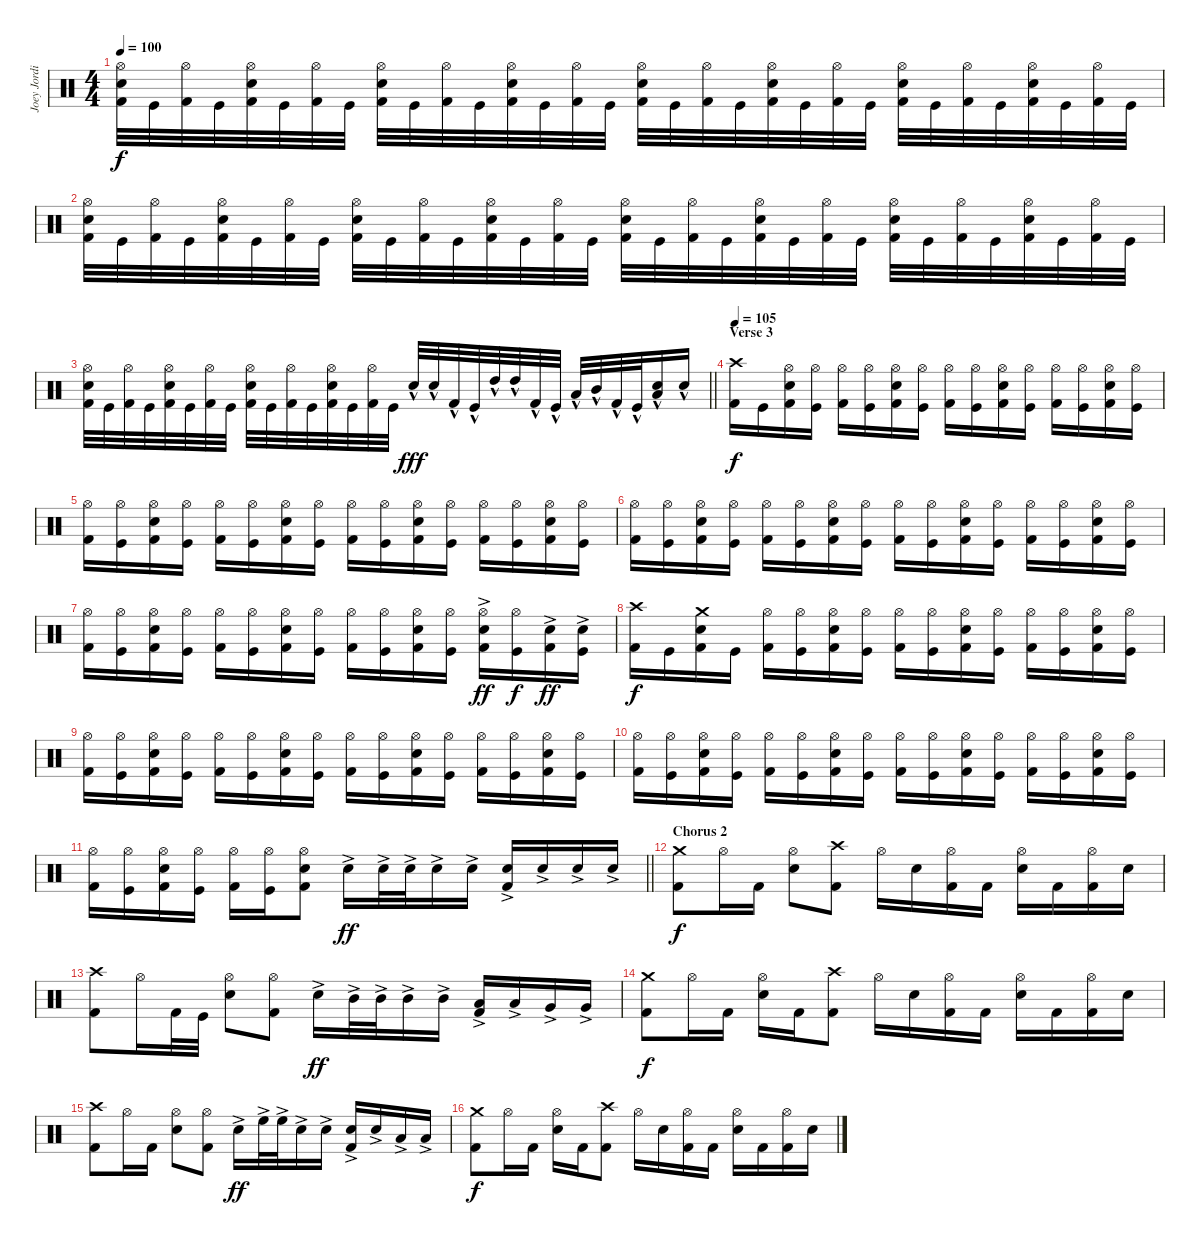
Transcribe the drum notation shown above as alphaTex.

\track ("Joey Jordinson (Drums)" "Joey Jordi") {instrument percussion}
\staff {score}
\articulation defaults
\ts (4 4)
\tempo 100
\clef neutral
\ks c
("Hi-Hat (open)" "Electric Snare (hit)" "Kick (hit) 2").32{dy f} "Kick (hit)".32 ("Hi-Hat (open)" "Kick (hit) 2").32 "Kick (hit)".32 ("Hi-Hat (open)" "Electric Snare (hit)" "Kick (hit) 2").32 "Kick (hit)".32 ("Hi-Hat (open)" "Kick (hit) 2").32 "Kick (hit)".32 ("Hi-Hat (open)" "Electric Snare (hit)" "Kick (hit) 2").32 "Kick (hit)".32 ("Hi-Hat (open)" "Kick (hit) 2").32 "Kick (hit)".32 ("Hi-Hat (open)" "Electric Snare (hit)" "Kick (hit) 2").32 "Kick (hit)".32 ("Hi-Hat (open)" "Kick (hit) 2").32 "Kick (hit)".32 ("Hi-Hat (open)" "Electric Snare (hit)" "Kick (hit) 2").32 "Kick (hit)".32 ("Hi-Hat (open)" "Kick (hit) 2").32 "Kick (hit)".32 ("Hi-Hat (open)" "Electric Snare (hit)" "Kick (hit) 2").32 "Kick (hit)".32 ("Hi-Hat (open)" "Kick (hit) 2").32 "Kick (hit)".32 ("Hi-Hat (open)" "Electric Snare (hit)" "Kick (hit) 2").32 "Kick (hit)".32 ("Hi-Hat (open)" "Kick (hit) 2").32 "Kick (hit)".32 ("Hi-Hat (open)" "Electric Snare (hit)" "Kick (hit) 2").32 "Kick (hit)".32 ("Hi-Hat (open)" "Kick (hit) 2").32 "Kick (hit)".32 |
("Hi-Hat (open)" "Electric Snare (hit)" "Kick (hit) 2").32 "Kick (hit)".32 ("Hi-Hat (open)" "Kick (hit) 2").32 "Kick (hit)".32 ("Hi-Hat (open)" "Electric Snare (hit)" "Kick (hit) 2").32 "Kick (hit)".32 ("Hi-Hat (open)" "Kick (hit) 2").32 "Kick (hit)".32 ("Hi-Hat (open)" "Electric Snare (hit)" "Kick (hit) 2").32 "Kick (hit)".32 ("Hi-Hat (open)" "Kick (hit) 2").32 "Kick (hit)".32 ("Hi-Hat (open)" "Electric Snare (hit)" "Kick (hit) 2").32 "Kick (hit)".32 ("Hi-Hat (open)" "Kick (hit) 2").32 "Kick (hit)".32 ("Hi-Hat (open)" "Electric Snare (hit)" "Kick (hit) 2").32 "Kick (hit)".32 ("Hi-Hat (open)" "Kick (hit) 2").32 "Kick (hit)".32 ("Hi-Hat (open)" "Electric Snare (hit)" "Kick (hit) 2").32 "Kick (hit)".32 ("Hi-Hat (open)" "Kick (hit) 2").32 "Kick (hit)".32 ("Hi-Hat (open)" "Electric Snare (hit)" "Kick (hit) 2").32 "Kick (hit)".32 ("Hi-Hat (open)" "Kick (hit) 2").32 "Kick (hit)".32 ("Hi-Hat (open)" "Electric Snare (hit)" "Kick (hit) 2").32 "Kick (hit)".32 ("Hi-Hat (open)" "Kick (hit) 2").32 "Kick (hit)".32 |
\barLineRight lightlight
("Hi-Hat (open)" "Electric Snare (hit)" "Kick (hit) 2").32 "Kick (hit)".32 ("Hi-Hat (open)" "Kick (hit) 2").32 "Kick (hit)".32 ("Hi-Hat (open)" "Electric Snare (hit)" "Kick (hit) 2").32 "Kick (hit)".32 ("Hi-Hat (open)" "Kick (hit) 2").32 "Kick (hit)".32 ("Hi-Hat (open)" "Electric Snare (hit)" "Kick (hit) 2").32 "Kick (hit)".32 ("Hi-Hat (open)" "Kick (hit) 2").32 "Kick (hit)".32 ("Hi-Hat (open)" "Electric Snare (hit)" "Kick (hit) 2").32 "Kick (hit)".32 ("Hi-Hat (open)" "Kick (hit) 2").32 "Kick (hit)".32 "Electric Snare (hit)"{hac}.32{dy fff} "Electric Snare (hit)"{hac}.32 "Kick (hit) 2"{hac}.32 "Kick (hit)"{hac}.32 "High Tom (hit)"{hac}.32 "High Tom (hit)"{hac}.32 "Kick (hit) 2"{hac}.32 "Kick (hit)"{hac}.32 "Low Tom (hit)"{hac}.32 "Mid Tom (hit)"{hac}.32 "Kick (hit) 2"{hac}.32 "Kick (hit)"{hac}.32 ("Low Tom (hit)"{hac} "Electric Snare (hit)"{hac}).16 "Electric Snare (hit)"{hac}.16 |
\section ("" "Verse 3")
\tempo 105
("Crash high (hit)" "Kick (hit) 2").16{dy f} "Kick (hit)".16 ("Hi-Hat (open)" "Electric Snare (hit)" "Kick (hit) 2").16 ("Hi-Hat (open)" "Kick (hit)").16 ("Hi-Hat (open)" "Kick (hit) 2").16 ("Hi-Hat (open)" "Kick (hit)").16 ("Hi-Hat (open)" "Electric Snare (hit)" "Kick (hit) 2").16 ("Hi-Hat (open)" "Kick (hit)").16 ("Hi-Hat (open)" "Kick (hit) 2").16 ("Hi-Hat (open)" "Kick (hit)").16 ("Hi-Hat (open)" "Electric Snare (hit)" "Kick (hit) 2").16 ("Hi-Hat (open)" "Kick (hit)").16 ("Hi-Hat (open)" "Kick (hit) 2").16 ("Hi-Hat (open)" "Kick (hit)").16 ("Hi-Hat (open)" "Electric Snare (hit)" "Kick (hit) 2").16 ("Hi-Hat (open)" "Kick (hit)").16 |
("Hi-Hat (open)" "Kick (hit) 2").16 ("Hi-Hat (open)" "Kick (hit)").16 ("Hi-Hat (open)" "Electric Snare (hit)" "Kick (hit) 2").16 ("Hi-Hat (open)" "Kick (hit)").16 ("Hi-Hat (open)" "Kick (hit) 2").16 ("Hi-Hat (open)" "Kick (hit)").16 ("Hi-Hat (open)" "Electric Snare (hit)" "Kick (hit) 2").16 ("Hi-Hat (open)" "Kick (hit)").16 ("Hi-Hat (open)" "Kick (hit) 2").16 ("Hi-Hat (open)" "Kick (hit)").16 ("Hi-Hat (open)" "Electric Snare (hit)" "Kick (hit) 2").16 ("Hi-Hat (open)" "Kick (hit)").16 ("Hi-Hat (open)" "Kick (hit) 2").16 ("Hi-Hat (open)" "Kick (hit)").16 ("Hi-Hat (open)" "Electric Snare (hit)" "Kick (hit) 2").16 ("Hi-Hat (open)" "Kick (hit)").16 |
("Hi-Hat (open)" "Kick (hit) 2").16 ("Hi-Hat (open)" "Kick (hit)").16 ("Hi-Hat (open)" "Electric Snare (hit)" "Kick (hit) 2").16 ("Hi-Hat (open)" "Kick (hit)").16 ("Hi-Hat (open)" "Kick (hit) 2").16 ("Hi-Hat (open)" "Kick (hit)").16 ("Hi-Hat (open)" "Electric Snare (hit)" "Kick (hit) 2").16 ("Hi-Hat (open)" "Kick (hit)").16 ("Hi-Hat (open)" "Kick (hit) 2").16 ("Hi-Hat (open)" "Kick (hit)").16 ("Hi-Hat (open)" "Electric Snare (hit)" "Kick (hit) 2").16 ("Hi-Hat (open)" "Kick (hit)").16 ("Hi-Hat (open)" "Kick (hit) 2").16 ("Hi-Hat (open)" "Kick (hit)").16 ("Hi-Hat (open)" "Electric Snare (hit)" "Kick (hit) 2").16 ("Hi-Hat (open)" "Kick (hit)").16 |
("Hi-Hat (open)" "Kick (hit) 2").16 ("Hi-Hat (open)" "Kick (hit)").16 ("Hi-Hat (open)" "Electric Snare (hit)" "Kick (hit) 2").16 ("Hi-Hat (open)" "Kick (hit)").16 ("Hi-Hat (open)" "Kick (hit) 2").16 ("Hi-Hat (open)" "Kick (hit)").16 ("Hi-Hat (open)" "Electric Snare (hit)" "Kick (hit) 2").16 ("Hi-Hat (open)" "Kick (hit)").16 ("Hi-Hat (open)" "Kick (hit) 2").16 ("Hi-Hat (open)" "Kick (hit)").16 ("Hi-Hat (open)" "Electric Snare (hit)" "Kick (hit) 2").16 ("Hi-Hat (open)" "Kick (hit)").16 ("Hi-Hat (open)" "Electric Snare (hit)"{ac} "Kick (hit) 2").16{dy ff} ("Hi-Hat (open)" "Kick (hit)").16{dy f} ("Electric Snare (hit)"{ac} "Kick (hit) 2").16{dy ff} ("Electric Snare (hit)"{ac} "Kick (hit)").16 |
("Crash high (hit)" "Kick (hit) 2").16{dy f} "Kick (hit)".16 ("Crash medium (hit)" "Electric Snare (hit)" "Kick (hit) 2").16 "Kick (hit)".16 ("Hi-Hat (open)" "Kick (hit) 2").16 ("Hi-Hat (open)" "Kick (hit)").16 ("Hi-Hat (open)" "Electric Snare (hit)" "Kick (hit) 2").16 ("Hi-Hat (open)" "Kick (hit)").16 ("Hi-Hat (open)" "Kick (hit) 2").16 ("Hi-Hat (open)" "Kick (hit)").16 ("Hi-Hat (open)" "Electric Snare (hit)" "Kick (hit) 2").16 ("Hi-Hat (open)" "Kick (hit)").16 ("Hi-Hat (open)" "Kick (hit) 2").16 ("Hi-Hat (open)" "Kick (hit)").16 ("Hi-Hat (open)" "Electric Snare (hit)" "Kick (hit) 2").16 ("Hi-Hat (open)" "Kick (hit)").16 |
("Hi-Hat (open)" "Kick (hit) 2").16 ("Hi-Hat (open)" "Kick (hit)").16 ("Hi-Hat (open)" "Electric Snare (hit)" "Kick (hit) 2").16 ("Hi-Hat (open)" "Kick (hit)").16 ("Hi-Hat (open)" "Kick (hit) 2").16 ("Hi-Hat (open)" "Kick (hit)").16 ("Hi-Hat (open)" "Electric Snare (hit)" "Kick (hit) 2").16 ("Hi-Hat (open)" "Kick (hit)").16 ("Hi-Hat (open)" "Kick (hit) 2").16 ("Hi-Hat (open)" "Kick (hit)").16 ("Hi-Hat (open)" "Electric Snare (hit)" "Kick (hit) 2").16 ("Hi-Hat (open)" "Kick (hit)").16 ("Hi-Hat (open)" "Kick (hit) 2").16 ("Hi-Hat (open)" "Kick (hit)").16 ("Hi-Hat (open)" "Electric Snare (hit)" "Kick (hit) 2").16 ("Hi-Hat (open)" "Kick (hit)").16 |
("Hi-Hat (open)" "Kick (hit) 2").16 ("Hi-Hat (open)" "Kick (hit)").16 ("Hi-Hat (open)" "Electric Snare (hit)" "Kick (hit) 2").16 ("Hi-Hat (open)" "Kick (hit)").16 ("Hi-Hat (open)" "Kick (hit) 2").16 ("Hi-Hat (open)" "Kick (hit)").16 ("Hi-Hat (open)" "Electric Snare (hit)" "Kick (hit) 2").16 ("Hi-Hat (open)" "Kick (hit)").16 ("Hi-Hat (open)" "Kick (hit) 2").16 ("Hi-Hat (open)" "Kick (hit)").16 ("Hi-Hat (open)" "Electric Snare (hit)" "Kick (hit) 2").16 ("Hi-Hat (open)" "Kick (hit)").16 ("Hi-Hat (open)" "Kick (hit) 2").16 ("Hi-Hat (open)" "Kick (hit)").16 ("Hi-Hat (open)" "Electric Snare (hit)" "Kick (hit) 2").16 ("Hi-Hat (open)" "Kick (hit)").16 |
\barLineRight lightlight
("Hi-Hat (open)" "Kick (hit) 2").16 ("Hi-Hat (open)" "Kick (hit)").16 ("Hi-Hat (open)" "Electric Snare (hit)" "Kick (hit) 2").16 ("Hi-Hat (open)" "Kick (hit)").16 ("Hi-Hat (open)" "Kick (hit) 2").16 ("Hi-Hat (open)" "Kick (hit)").16 ("Hi-Hat (open)" "Electric Snare (hit)" "Kick (hit) 2").8 "Electric Snare (hit)"{ac}.16{dy ff} "Electric Snare (hit)"{ac}.32 "Electric Snare (hit)"{ac}.32 "Electric Snare (hit)"{ac}.16 "Electric Snare (hit)"{ac}.16 ("Electric Snare (hit)"{ac} "Kick (hit) 2").16 "Electric Snare (hit)"{ac}.16 "Electric Snare (hit)"{ac}.16 "Electric Snare (hit)"{ac}.16 |
\section ("" "Chorus 2")
("Crash medium (hit)" "Kick (hit) 2").8{dy f} "Hi-Hat (open)".16 "Kick (hit) 2".16 ("Hi-Hat (open)" "Electric Snare (hit)").8 ("Crash high (hit)" "Kick (hit) 2").8 "Hi-Hat (open)".16 "Electric Snare (hit)".16 ("Hi-Hat (open)" "Kick (hit) 2").16 "Kick (hit) 2".16 ("Hi-Hat (open)" "Electric Snare (hit)").16 "Kick (hit) 2".16 ("Hi-Hat (open)" "Kick (hit) 2").16 "Electric Snare (hit)".16 |
("Crash high (hit)" "Kick (hit) 2").8 "Hi-Hat (open)".16 "Kick (hit) 2".32 "Kick (hit)".32 ("Hi-Hat (open)" "Electric Snare (hit)").8 ("Hi-Hat (open)" "Kick (hit) 2").8 "Electric Snare (hit)"{ac}.16{dy ff} "Mid Tom (hit)"{ac}.32 "Mid Tom (hit)"{ac}.32 "Mid Tom (hit)"{ac}.16 "Mid Tom (hit)"{ac}.16 ("Low Tom (hit)"{ac} "Kick (hit) 2").16 "Low Tom (hit)"{ac}.16 "Very Low Tom (hit)"{ac}.16 "Very Low Tom (hit)"{ac}.16 |
("Crash medium (hit)" "Kick (hit) 2").8{dy f} "Hi-Hat (open)".16 "Kick (hit) 2".16 ("Hi-Hat (open)" "Electric Snare (hit)").16 "Kick (hit) 2".16 ("Crash high (hit)" "Kick (hit) 2").8 "Hi-Hat (open)".16 "Electric Snare (hit)".16 ("Hi-Hat (open)" "Kick (hit) 2").16 "Kick (hit) 2".16 ("Hi-Hat (open)" "Electric Snare (hit)").16 "Kick (hit) 2".16 ("Hi-Hat (open)" "Kick (hit) 2").16 "Electric Snare (hit)".16 |
("Crash high (hit)" "Kick (hit) 2").8 "Hi-Hat (open)".16 "Kick (hit) 2".16 ("Hi-Hat (open)" "Electric Snare (hit)").8 ("Hi-Hat (open)" "Kick (hit) 2").8 "Electric Snare (hit)"{ac}.16{dy ff} "High Floor Tom (hit)"{ac}.32 "High Floor Tom (hit)"{ac}.32 "Electric Snare (hit)"{ac}.16 "Electric Snare (hit)"{ac}.16 ("Electric Snare (hit)"{ac} "Kick (hit) 2").16 "Electric Snare (hit)"{ac}.16 "Low Tom (hit)"{ac}.16 "Low Tom (hit)"{ac}.16 |
("Crash medium (hit)" "Kick (hit) 2").8{dy f} "Hi-Hat (open)".16 "Kick (hit) 2".16 ("Hi-Hat (open)" "Electric Snare (hit)").16 "Kick (hit) 2".16 ("Crash high (hit)" "Kick (hit) 2").8 "Hi-Hat (open)".16 "Electric Snare (hit)".16 ("Hi-Hat (open)" "Kick (hit) 2").16 "Kick (hit) 2".16 ("Hi-Hat (open)" "Electric Snare (hit)").16 "Kick (hit) 2".16 ("Hi-Hat (open)" "Kick (hit) 2").16 "Electric Snare (hit)".16
